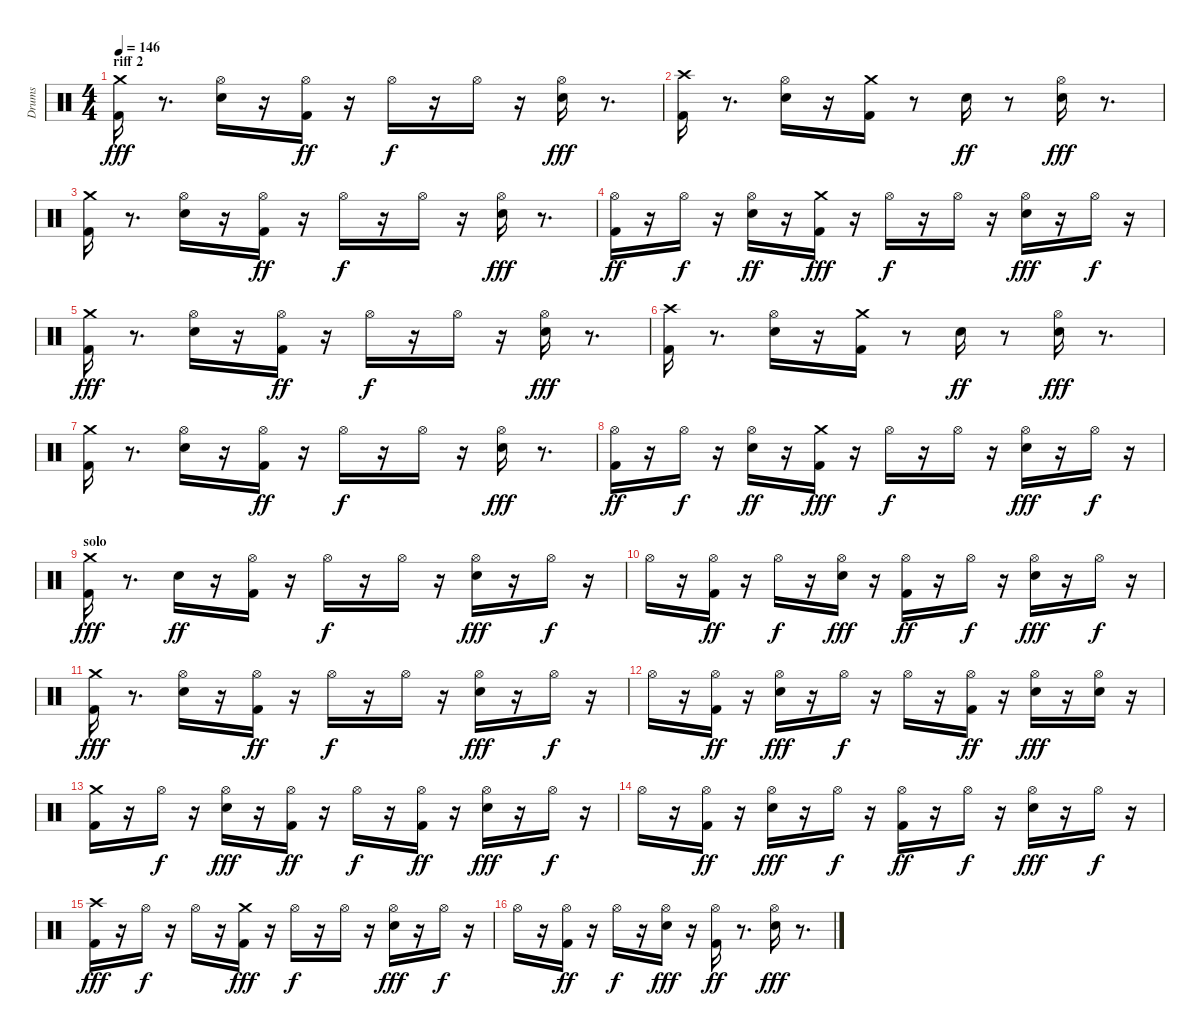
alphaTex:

\track ("Drums" "Drums") {instrument percussion}
\staff {score}
\articulation defaults
\ts (4 4)
\section ("" "riff 2")
\tempo 146
\clef neutral
\ks c
("Kick (hit) 2" "Crash medium (hit)").16{dy fff} r.8{d} ("Snare (hit) 2" "Hi-Hat (open)").16 r.16 ("Kick (hit) 2" "Hi-Hat (open)").16{dy ff} r.16 "Hi-Hat (open)".16{dy f} r.16 "Hi-Hat (open)".16 r.16 ("Snare (hit) 2" "Hi-Hat (open)").16{dy fff} r.8{d} |
("Kick (hit) 2" "Crash high (hit)").16 r.8{d} ("Snare (hit) 2" "Hi-Hat (open)").16 r.16 ("Kick (hit) 2" "Crash medium (hit)").16 r.8 "Snare (hit) 2".16{dy ff} r.8 ("Snare (hit) 2" "Hi-Hat (open)").16{dy fff} r.8{d} |
("Kick (hit) 2" "Crash medium (hit)").16 r.8{d} ("Snare (hit) 2" "Hi-Hat (open)").16 r.16 ("Kick (hit) 2" "Hi-Hat (open)").16{dy ff} r.16 "Hi-Hat (open)".16{dy f} r.16 "Hi-Hat (open)".16 r.16 ("Snare (hit) 2" "Hi-Hat (open)").16{dy fff} r.8{d} |
("Kick (hit) 2" "Hi-Hat (open)").16{dy ff} r.16 "Hi-Hat (open)".16{dy f} r.16 ("Snare (hit) 2" "Hi-Hat (open)").16{dy ff} r.16 ("Kick (hit) 2" "Crash medium (hit)").16{dy fff} r.16 "Hi-Hat (open)".16{dy f} r.16 "Hi-Hat (open)".16 r.16 ("Snare (hit) 2" "Hi-Hat (open)").16{dy fff} r.16 "Hi-Hat (open)".16{dy f} r.16 |
("Kick (hit) 2" "Crash medium (hit)").16{dy fff} r.8{d} ("Snare (hit) 2" "Hi-Hat (open)").16 r.16 ("Kick (hit) 2" "Hi-Hat (open)").16{dy ff} r.16 "Hi-Hat (open)".16{dy f} r.16 "Hi-Hat (open)".16 r.16 ("Snare (hit) 2" "Hi-Hat (open)").16{dy fff} r.8{d} |
("Kick (hit) 2" "Crash high (hit)").16 r.8{d} ("Snare (hit) 2" "Hi-Hat (open)").16 r.16 ("Kick (hit) 2" "Crash medium (hit)").16 r.8 "Snare (hit) 2".16{dy ff} r.8 ("Snare (hit) 2" "Hi-Hat (open)").16{dy fff} r.8{d} |
("Kick (hit) 2" "Crash medium (hit)").16 r.8{d} ("Snare (hit) 2" "Hi-Hat (open)").16 r.16 ("Kick (hit) 2" "Hi-Hat (open)").16{dy ff} r.16 "Hi-Hat (open)".16{dy f} r.16 "Hi-Hat (open)".16 r.16 ("Snare (hit) 2" "Hi-Hat (open)").16{dy fff} r.8{d} |
("Kick (hit) 2" "Hi-Hat (open)").16{dy ff} r.16 "Hi-Hat (open)".16{dy f} r.16 ("Snare (hit) 2" "Hi-Hat (open)").16{dy ff} r.16 ("Kick (hit) 2" "Crash medium (hit)").16{dy fff} r.16 "Hi-Hat (open)".16{dy f} r.16 "Hi-Hat (open)".16 r.16 ("Snare (hit) 2" "Hi-Hat (open)").16{dy fff} r.16 "Hi-Hat (open)".16{dy f} r.16 |
\section ("" "solo")
("Kick (hit) 2" "Crash medium (hit)").16{dy fff} r.8{d} "Snare (hit) 2".16{dy ff} r.16 ("Kick (hit) 2" "Hi-Hat (open)").16 r.16 "Hi-Hat (open)".16{dy f} r.16 "Hi-Hat (open)".16 r.16 ("Snare (hit) 2" "Hi-Hat (open)").16{dy fff} r.16 "Hi-Hat (open)".16{dy f} r.16 |
"Hi-Hat (open)".16 r.16 ("Kick (hit) 2" "Hi-Hat (open)").16{dy ff} r.16 "Hi-Hat (open)".16{dy f} r.16 ("Snare (hit) 2" "Hi-Hat (open)").16{dy fff} r.16 ("Kick (hit) 2" "Hi-Hat (open)").16{dy ff} r.16 "Hi-Hat (open)".16{dy f} r.16 ("Snare (hit) 2" "Hi-Hat (open)").16{dy fff} r.16 "Hi-Hat (open)".16{dy f} r.16 |
("Kick (hit) 2" "Crash medium (hit)").16{dy fff} r.8{d} ("Snare (hit) 2" "Hi-Hat (open)").16 r.16 ("Kick (hit) 2" "Hi-Hat (open)").16{dy ff} r.16 "Hi-Hat (open)".16{dy f} r.16 "Hi-Hat (open)".16 r.16 ("Snare (hit) 2" "Hi-Hat (open)").16{dy fff} r.16 "Hi-Hat (open)".16{dy f} r.16 |
"Hi-Hat (open)".16 r.16 ("Kick (hit) 2" "Hi-Hat (open)").16{dy ff} r.16 ("Snare (hit) 2" "Hi-Hat (open)").16{dy fff} r.16 "Hi-Hat (open)".16{dy f} r.16 "Hi-Hat (open)".16 r.16 ("Kick (hit) 2" "Hi-Hat (open)").16{dy ff} r.16 ("Snare (hit) 2" "Hi-Hat (open)").16{dy fff} r.16 ("Snare (hit) 2" "Hi-Hat (open)").16 r.16 |
("Kick (hit) 2" "Crash medium (hit)").16 r.16 "Hi-Hat (open)".16{dy f} r.16 ("Snare (hit) 2" "Hi-Hat (open)").16{dy fff} r.16 ("Kick (hit) 2" "Hi-Hat (open)").16{dy ff} r.16 "Hi-Hat (open)".16{dy f} r.16 ("Kick (hit) 2" "Hi-Hat (open)").16{dy ff} r.16 ("Snare (hit) 2" "Hi-Hat (open)").16{dy fff} r.16 "Hi-Hat (open)".16{dy f} r.16 |
"Hi-Hat (open)".16 r.16 ("Kick (hit) 2" "Hi-Hat (open)").16{dy ff} r.16 ("Snare (hit) 2" "Hi-Hat (open)").16{dy fff} r.16 "Hi-Hat (open)".16{dy f} r.16 ("Kick (hit) 2" "Hi-Hat (open)").16{dy ff} r.16 "Hi-Hat (open)".16{dy f} r.16 ("Snare (hit) 2" "Hi-Hat (open)").16{dy fff} r.16 "Hi-Hat (open)".16{dy f} r.16 |
("Kick (hit) 2" "Crash high (hit)").16{dy fff} r.16 "Hi-Hat (open)".16{dy f} r.16 "Hi-Hat (open)".16 r.16 ("Kick (hit) 2" "Crash medium (hit)").16{dy fff} r.16 "Hi-Hat (open)".16{dy f} r.16 "Hi-Hat (open)".16 r.16 ("Snare (hit) 2" "Hi-Hat (open)").16{dy fff} r.16 "Hi-Hat (open)".16{dy f} r.16 |
"Hi-Hat (open)".16 r.16 ("Kick (hit) 2" "Hi-Hat (open)").16{dy ff} r.16 "Hi-Hat (open)".16{dy f} r.16 ("Snare (hit) 2" "Hi-Hat (open)").16{dy fff} r.16 ("Kick (hit) 2" "Hi-Hat (open)").16{dy ff} r.8{d} ("Snare (hit) 2" "Hi-Hat (open)").16{dy fff} r.8{d}
